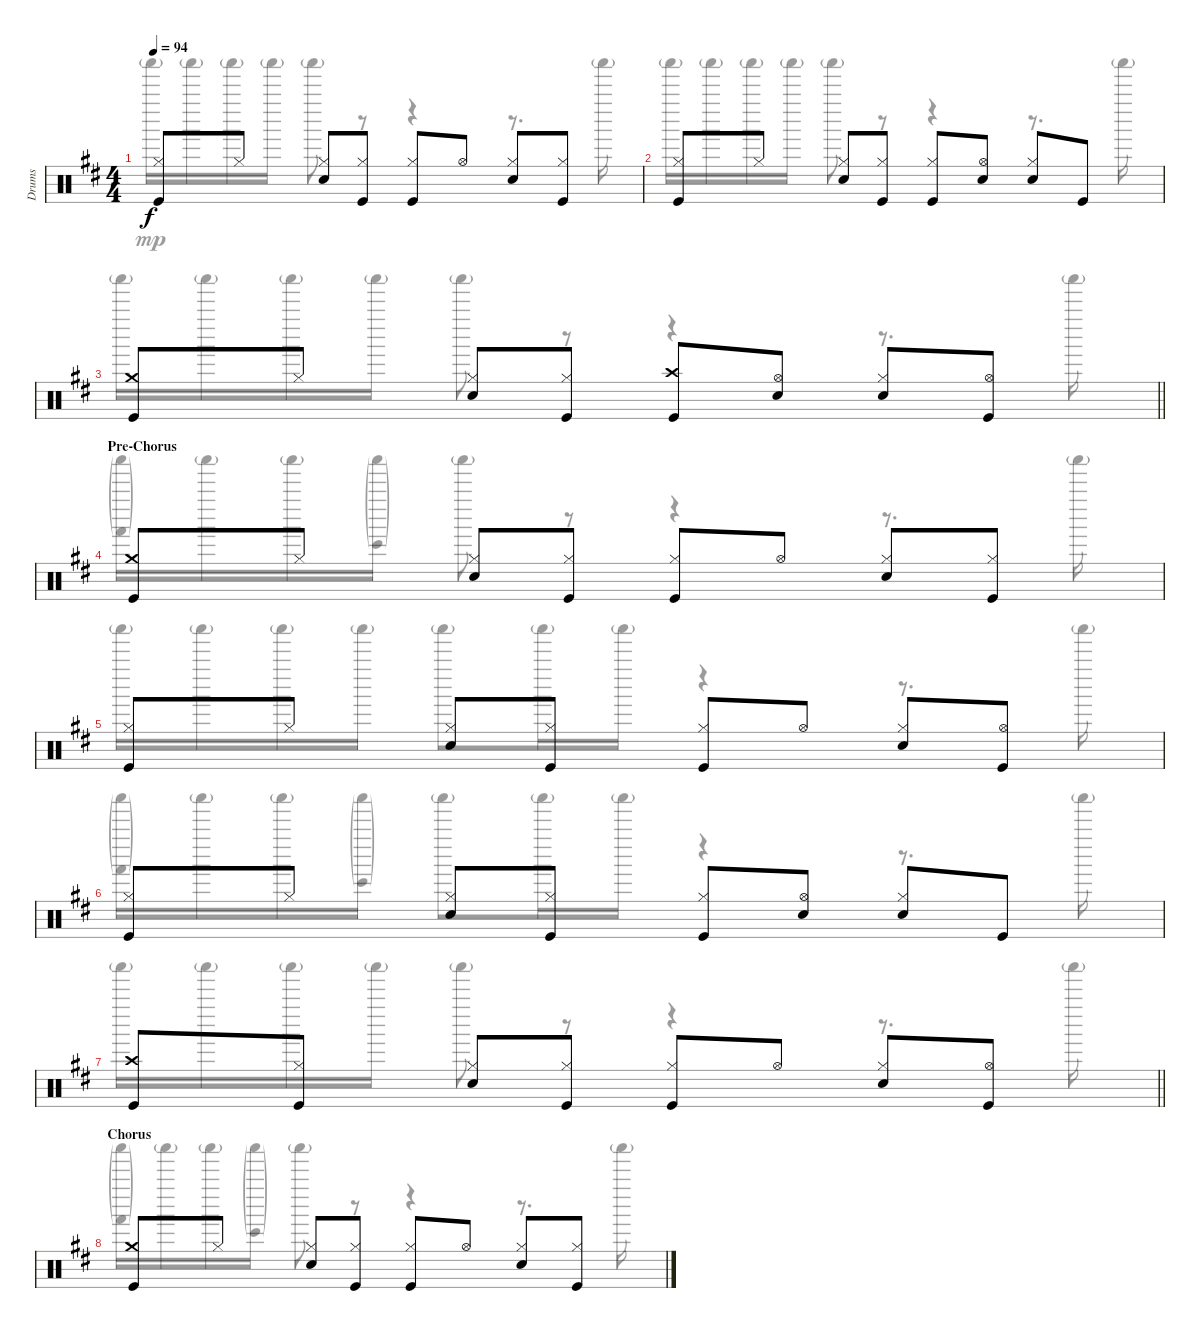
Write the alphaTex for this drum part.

\track ("Drums" "Drums") {instrument percussion}
\staff {score}
\articulation defaults
\voice
\ts (4 4)
\tempo 94
\clef neutral
\ks d
("Hi-Hat (closed)" "Kick (hit)").8{dy f} "Hi-Hat (closed)".8 ("Hi-Hat (closed)" "Snare (hit) 2").8 ("Hi-Hat (closed)" "Kick (hit)").8 ("Hi-Hat (closed)" "Kick (hit)").8 "Hi-Hat (open)".8 ("Hi-Hat (closed)" "Snare (hit) 2").8 ("Hi-Hat (closed)" "Kick (hit)").8 |
("Hi-Hat (closed)" "Kick (hit)").8 "Hi-Hat (closed)".8 ("Hi-Hat (closed)" "Snare (hit) 2").8 ("Hi-Hat (closed)" "Kick (hit)").8 ("Hi-Hat (closed)" "Kick (hit)").8 ("Hi-Hat (open)" "Snare (hit) 2").8 ("Hi-Hat (closed)" "Snare (hit) 2").8 "Kick (hit)".8 |
\barLineRight lightlight
("Crash medium (hit)" "Kick (hit)").8 "Hi-Hat (closed)".8 ("Hi-Hat (closed)" "Snare (hit) 2").8 ("Hi-Hat (closed)" "Kick (hit)").8 ("Crash high (hit)" "Kick (hit)").8 ("Hi-Hat (open)" "Snare (hit) 2").8 ("Hi-Hat (closed)" "Snare (hit) 2").8 ("Hi-Hat (open)" "Kick (hit)").8 |
\section ("" "Pre-Chorus")
("Crash medium (hit)" "Kick (hit)").8 "Hi-Hat (closed)".8 ("Hi-Hat (closed)" "Snare (hit) 2").8 ("Hi-Hat (closed)" "Kick (hit)").8 ("Hi-Hat (closed)" "Kick (hit)").8 "Hi-Hat (open)".8 ("Hi-Hat (closed)" "Snare (hit) 2").8 ("Hi-Hat (closed)" "Kick (hit)").8 |
("Hi-Hat (closed)" "Kick (hit)").8 "Hi-Hat (closed)".8 ("Hi-Hat (closed)" "Snare (hit) 2").8 ("Hi-Hat (closed)" "Kick (hit)").8 ("Hi-Hat (closed)" "Kick (hit)").8 "Hi-Hat (open)".8 ("Hi-Hat (closed)" "Snare (hit) 2").8 ("Hi-Hat (open)" "Kick (hit)").8 |
("Hi-Hat (closed)" "Kick (hit)").8 "Hi-Hat (closed)".8 ("Hi-Hat (closed)" "Snare (hit) 2").8 ("Hi-Hat (closed)" "Kick (hit)").8 ("Hi-Hat (closed)" "Kick (hit)").8 ("Hi-Hat (open)" "Snare (hit) 2").8 ("Hi-Hat (closed)" "Snare (hit) 2").8 "Kick (hit)".8 |
\barLineRight lightlight
("Crash high (hit)" "Kick (hit)").8 ("Hi-Hat (closed)" "Kick (hit)").8 ("Hi-Hat (closed)" "Snare (hit) 2").8 ("Hi-Hat (closed)" "Kick (hit)").8 ("Hi-Hat (closed)" "Kick (hit)").8 "Hi-Hat (open)".8 ("Hi-Hat (closed)" "Snare (hit) 2").8 ("Hi-Hat (open)" "Kick (hit)").8 |
\section ("" "Chorus")
("Crash medium (hit)" "Kick (hit)").8 "Hi-Hat (closed)".8 ("Hi-Hat (closed)" "Snare (hit) 2").8 ("Hi-Hat (closed)" "Kick (hit)").8 ("Hi-Hat (closed)" "Kick (hit)").8 "Hi-Hat (open)".8 ("Hi-Hat (closed)" "Snare (hit) 2").8 ("Hi-Hat (closed)" "Kick (hit)").8
\voice
\clef neutral
\ottava regular
\simile none
\ks d "Shaker (hit)"{g}.16{dy mp} "Shaker (hit)"{g}.16 "Shaker (hit)"{g}.16 "Shaker (hit)"{g}.16 "Shaker (hit)"{g}.8
r.8 r.4 r.8{d} "Shaker (hit)"{g}.16 |
"Shaker (hit)"{g}.16 "Shaker (hit)"{g}.16 "Shaker (hit)"{g}.16 "Shaker (hit)"{g}.16 "Shaker (hit)"{g}.8 r.8 r.4 r.8{d} "Shaker (hit)"{g}.16 |
\barLineRight lightlight "Shaker (hit)"{g}.16 "Shaker (hit)"{g}.16 "Shaker (hit)"{g}.16 "Shaker (hit)"{g}.16 "Shaker (hit)"{g}.8
r.8 r.4 r.8{d} "Shaker (hit)"{g}.16 |
("Shaker (hit)"{g} "Hand (hit)"{g}).16 "Shaker (hit)"{g}.16 "Shaker (hit)"{g}.16 ("Shaker (hit)"{g} "Bongo High (hit)"{g}).16 "Shaker (hit)"{g}.8 r.8 r.4 r.8{d} "Shaker (hit)"{g}.16 |
"Shaker (hit)"{g}.16 "Shaker (hit)"{g}.16 "Shaker (hit)"{g}.16 "Shaker (hit)"{g}.16 "Shaker (hit)"{g}.8 "Shaker (hit)"{g}.16 "Shaker (hit)"{g}.16 r.4 r.8{d} "Shaker (hit)"{g}.16 |
("Shaker (hit)"{g} "Hand (hit)"{g}).16 "Shaker (hit)"{g}.16 "Shaker (hit)"{g}.16 ("Shaker (hit)"{g} "Bongo High (hit)"{g}).16 "Shaker (hit)"{g}.8 "Shaker (hit)"{g}.16 "Shaker (hit)"{g}.16 r.4 r.8{d} "Shaker (hit)"{g}.16 |
\barLineRight lightlight "Shaker (hit)"{g}.16 "Shaker (hit)"{g}.16 "Shaker (hit)"{g}.16 "Shaker (hit)"{g}.16 "Shaker (hit)"{g}.8
r.8 r.4 r.8{d} "Shaker (hit)"{g}.16 |
("Shaker (hit)"{g} "Hand (hit)"{g}).16 "Shaker (hit)"{g}.16 "Shaker (hit)"{g}.16 ("Shaker (hit)"{g} "Bongo High (hit)"{g}).16 "Shaker (hit)"{g}.8 r.8 r.4 r.8{d} "Shaker (hit)"{g}.16
